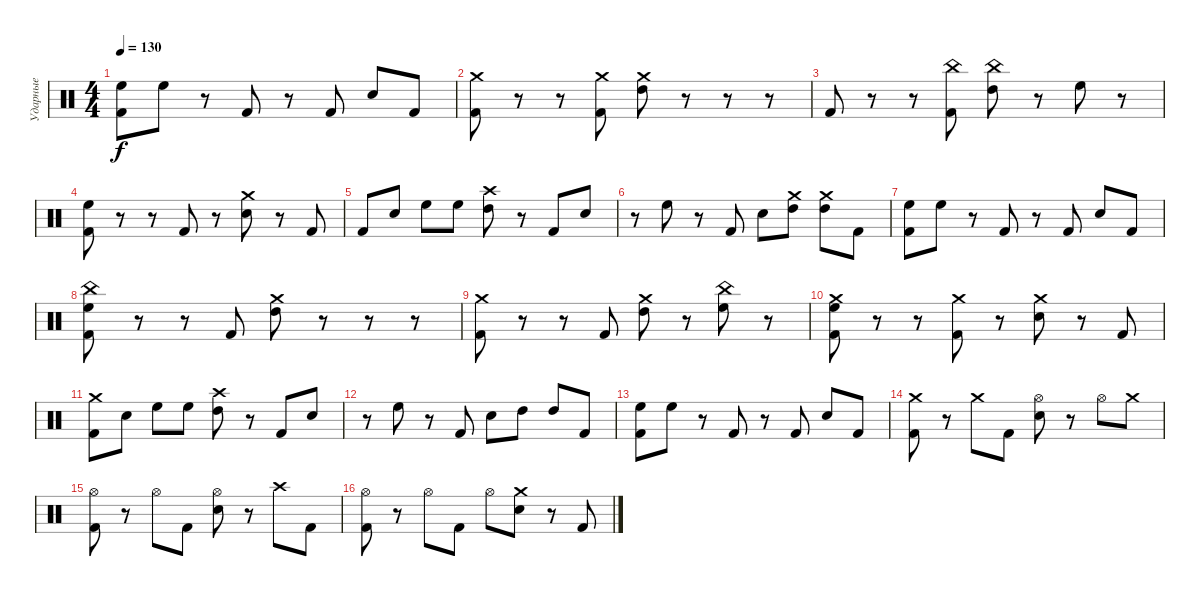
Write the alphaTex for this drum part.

\track ("Ударные" "Ударные") {instrument percussion}
\staff {score}
\articulation defaults
\ts (4 4)
\tempo 130
\clef neutral
\ks c
("High Floor Tom (hit)" "Kick (hit) 2").8{dy f} "High Floor Tom (hit)".8 r.8 "Kick (hit) 2".8 r.8 "Kick (hit) 2".8 "Electric Snare (hit)".8 "Kick (hit) 2".8 |
("Crash medium (hit)" "Kick (hit) 2").8 r.8 r.8 ("Crash medium (hit)" "Kick (hit) 2").8 ("Crash medium (hit)" "High Tom (hit)").8 r.8 r.8 r.8 |
"Kick (hit) 2".8 r.8 r.8 ("China (hit)" "Kick (hit) 2").8 ("China (hit)" "High Tom (hit)").8 r.8 "High Floor Tom (hit)".8 r.8 |
("High Floor Tom (hit)" "Kick (hit) 2").8 r.8 r.8 "Kick (hit) 2".8 r.8 ("Crash medium (hit)" "Electric Snare (hit)").8 r.8 "Kick (hit) 2".8 |
"Kick (hit) 2".8 "Electric Snare (hit)".8 "High Floor Tom (hit)".8 "High Floor Tom (hit)".8 ("Crash high (hit)" "High Tom (hit)").8 r.8 "Kick (hit) 2".8 "Electric Snare (hit)".8 |
r.8 "High Floor Tom (hit)".8 r.8 "Kick (hit) 2".8 "Electric Snare (hit)".8 ("High Tom (hit)" "Crash medium (hit)").8 ("High Tom (hit)" "Crash medium (hit)").8 "Kick (hit) 2".8 |
("High Floor Tom (hit)" "Kick (hit) 2").8 "High Floor Tom (hit)".8 r.8 "Kick (hit) 2".8 r.8 "Kick (hit) 2".8 "Electric Snare (hit)".8 "Kick (hit) 2".8 |
("High Floor Tom (hit)" "China (hit)" "Kick (hit) 2").8 r.8 r.8 "Kick (hit) 2".8 ("Crash medium (hit)" "High Tom (hit)").8 r.8 r.8 r.8 |
("Crash medium (hit)" "Kick (hit) 2").8 r.8 r.8 "Kick (hit) 2".8 ("Crash medium (hit)" "High Tom (hit)").8 r.8 ("High Floor Tom (hit)" "China (hit)").8 r.8 |
("High Floor Tom (hit)" "Crash medium (hit)" "Kick (hit) 2").8 r.8 r.8 ("Crash medium (hit)" "Kick (hit) 2").8 r.8 ("Crash medium (hit)" "Electric Snare (hit)").8 r.8 "Kick (hit) 2".8 |
("Crash medium (hit)" "Kick (hit) 2").8 "Electric Snare (hit)".8 "High Floor Tom (hit)".8 "High Floor Tom (hit)".8 ("Crash high (hit)" "High Tom (hit)").8 r.8 "Kick (hit) 2".8 "Electric Snare (hit)".8 |
r.8 "High Floor Tom (hit)".8 r.8 "Kick (hit) 2".8 "Electric Snare (hit)".8 "High Tom (hit)".8 "High Tom (hit)".8 "Kick (hit) 2".8 |
("High Floor Tom (hit)" "Kick (hit) 2").8 "High Floor Tom (hit)".8 r.8 "Kick (hit) 2".8 r.8 "Kick (hit) 2".8 "Electric Snare (hit)".8 "Kick (hit) 2".8 |
("Crash medium (hit)" "Kick (hit) 2").8 r.8 "Crash medium (hit)".8 "Kick (hit) 2".8 ("Hi-Hat (open)" "Electric Snare (hit)").8 r.8 "Hi-Hat (open)".8 "Crash medium (hit)".8 |
("Hi-Hat (open)" "Kick (hit) 2").8 r.8 "Hi-Hat (open)".8 "Kick (hit) 2".8 ("Hi-Hat (open)" "Electric Snare (hit)").8 r.8 "Crash high (hit)".8 "Kick (hit) 2".8 |
("Hi-Hat (open)" "Kick (hit) 2").8 r.8 "Hi-Hat (open)".8 "Kick (hit) 2".8 "Hi-Hat (open)".8 ("Crash medium (hit)" "Electric Snare (hit)").8 r.8 "Kick (hit) 2".8
